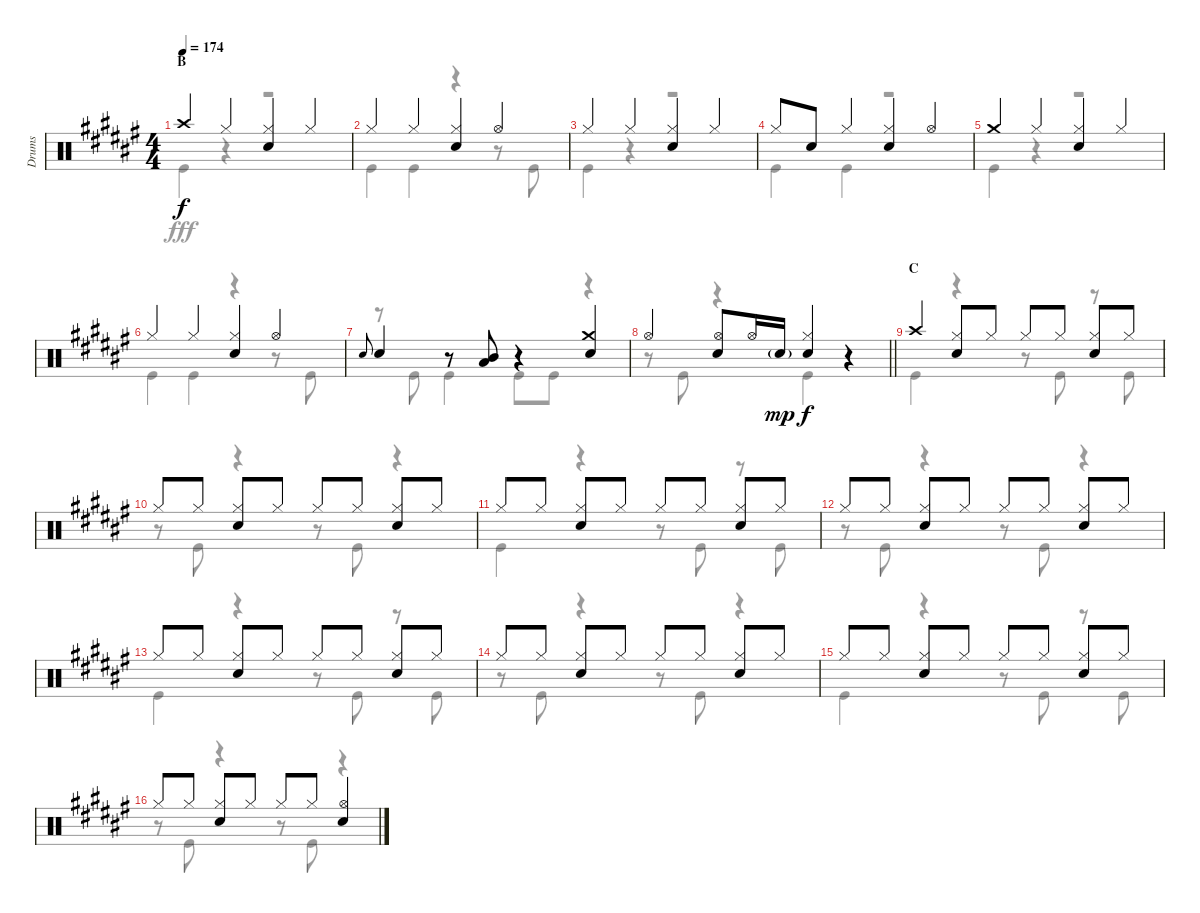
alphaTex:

\track ("Drums" "Drums") {instrument percussion}
\staff {score}
\articulation defaults
\voice
\ts (4 4)
\section ("" "B")
\tempo 174
\clef neutral
\ks f# "Crash high (hit)".4{dy f} "Hi-Hat (closed)".4
("Hi-Hat (closed)" "Snare (hit) 2").4 "Hi-Hat (closed)".4 |
"Hi-Hat (closed)".4 "Hi-Hat (closed)".4 ("Hi-Hat (closed)" "Snare (hit) 2").4 "Hi-Hat (open)".4 |
"Hi-Hat (closed)".4 "Hi-Hat (closed)".4 ("Hi-Hat (closed)" "Snare (hit) 2").4 "Hi-Hat (closed)".4 |
"Hi-Hat (closed)".8 "Snare (hit) 2".8 "Hi-Hat (closed)".4 ("Hi-Hat (closed)" "Snare (hit) 2").4 "Hi-Hat (open)".4 |
"Crash medium (hit)".4 "Hi-Hat (closed)".4 ("Hi-Hat (closed)" "Snare (hit) 2").4 "Hi-Hat (closed)".4 |
"Hi-Hat (closed)".4 "Hi-Hat (closed)".4 ("Hi-Hat (closed)" "Snare (hit) 2").4 "Hi-Hat (open)".4 |
"Snare (hit) 2".8{gr onbeat} "Snare (hit) 2".4 r.8 ("Mid Tom (hit)" "Low Tom (hit)").8 r.4 ("Crash medium (hit)" "Snare (hit) 2").4 |
\barLineRight lightlight "Hi-Hat (open)".4
("Hi-Hat (open)" "Snare (hit) 2").8 "Hi-Hat (open)".16 "Snare (hit) 2"{g}.16{dy mp} ("Hi-Hat (closed)" "Snare (hit) 2").4{dy f} r.4 |
\section ("" "C")
"Crash high (hit)".4 ("Hi-Hat (closed)" "Snare (hit) 2").8 "Hi-Hat (closed)".8 "Hi-Hat (closed)".8 "Hi-Hat (closed)".8 ("Hi-Hat (closed)" "Snare (hit) 2").8 "Hi-Hat (closed)".8 |
"Hi-Hat (closed)".8 "Hi-Hat (closed)".8 ("Hi-Hat (closed)" "Snare (hit) 2").8 "Hi-Hat (closed)".8 "Hi-Hat (closed)".8 "Hi-Hat (closed)".8 ("Hi-Hat (closed)" "Snare (hit) 2").8 "Hi-Hat (closed)".8 |
"Hi-Hat (closed)".8 "Hi-Hat (closed)".8 ("Hi-Hat (closed)" "Snare (hit) 2").8 "Hi-Hat (closed)".8 "Hi-Hat (closed)".8 "Hi-Hat (closed)".8 ("Hi-Hat (closed)" "Snare (hit) 2").8 "Hi-Hat (closed)".8 |
"Hi-Hat (closed)".8 "Hi-Hat (closed)".8 ("Hi-Hat (closed)" "Snare (hit) 2").8 "Hi-Hat (closed)".8 "Hi-Hat (closed)".8 "Hi-Hat (closed)".8 ("Hi-Hat (closed)" "Snare (hit) 2").8 "Hi-Hat (closed)".8 |
"Hi-Hat (closed)".8 "Hi-Hat (closed)".8 ("Hi-Hat (closed)" "Snare (hit) 2").8 "Hi-Hat (closed)".8 "Hi-Hat (closed)".8 "Hi-Hat (closed)".8 ("Hi-Hat (closed)" "Snare (hit) 2").8 "Hi-Hat (closed)".8 |
"Hi-Hat (closed)".8 "Hi-Hat (closed)".8 ("Hi-Hat (closed)" "Snare (hit) 2").8 "Hi-Hat (closed)".8 "Hi-Hat (closed)".8 "Hi-Hat (closed)".8 ("Hi-Hat (closed)" "Snare (hit) 2").8 "Hi-Hat (closed)".8 |
"Hi-Hat (closed)".8 "Hi-Hat (closed)".8 ("Hi-Hat (closed)" "Snare (hit) 2").8 "Hi-Hat (closed)".8 "Hi-Hat (closed)".8 "Hi-Hat (closed)".8 ("Hi-Hat (closed)" "Snare (hit) 2").8 "Hi-Hat (closed)".8 |
"Hi-Hat (closed)".8 "Hi-Hat (closed)".8 ("Hi-Hat (closed)" "Snare (hit) 2").8 "Hi-Hat (closed)".8 "Hi-Hat (closed)".8 "Hi-Hat (closed)".8 ("Hi-Hat (open)" "Snare (hit) 2").4
\voice
\clef neutral
\ottava regular
\simile none
\ks f# "Kick (hit)".4{dy fff}
r.4 r.2 |
"Kick (hit)".4 "Kick (hit)".4 r.4 r.8 "Kick (hit)".8 |
"Kick (hit)".4 r.4 r.2 |
"Kick (hit)".4 "Kick (hit)".4 r.2 |
"Kick (hit)".4 r.4 r.2 |
"Kick (hit)".4 "Kick (hit)".4 r.4 r.8 "Kick (hit)".8 |
r.8 "Kick (hit)".8 "Kick (hit)".4 "Kick (hit)".8 "Kick (hit)".8 r.4 |
\barLineRight lightlight
r.8 "Kick (hit)".8 r.4 "Kick (hit)".4 r.4 |
"Kick (hit)".4 r.4 r.8 "Kick (hit)".8 r.8 "Kick (hit)".8 |
r.8 "Kick (hit)".8 r.4 r.8 "Kick (hit)".8 r.4 |
"Kick (hit)".4 r.4 r.8 "Kick (hit)".8 r.8 "Kick (hit)".8 |
r.8 "Kick (hit)".8 r.4 r.8 "Kick (hit)".8 r.4 |
"Kick (hit)".4 r.4 r.8 "Kick (hit)".8 r.8 "Kick (hit)".8 |
r.8 "Kick (hit)".8 r.4 r.8 "Kick (hit)".8 r.4 |
"Kick (hit)".4 r.4 r.8 "Kick (hit)".8 r.8 "Kick (hit)".8 |
r.8 "Kick (hit)".8 r.4 r.8 "Kick (hit)".8 r.4
